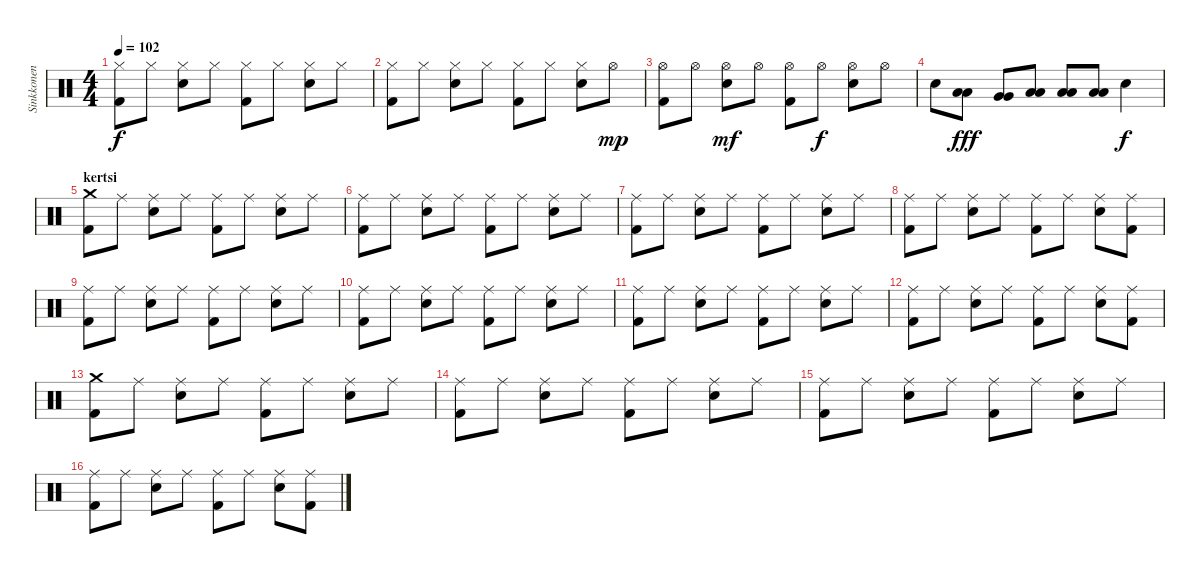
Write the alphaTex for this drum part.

\track ("Sinkkonen" "Sinkkonen") {instrument percussion}
\staff {score}
\articulation defaults
\ts (4 4)
\tempo 102
\clef neutral
\ks c
("Kick (hit) 2" "Hi-Hat (closed)").8{dy f} "Hi-Hat (closed)".8 ("Hi-Hat (closed)" "Snare (hit) 2").8 "Hi-Hat (closed)".8 ("Kick (hit) 2" "Hi-Hat (closed)").8 "Hi-Hat (closed)".8 ("Hi-Hat (closed)" "Snare (hit) 2").8 "Hi-Hat (closed)".8 |
("Kick (hit) 2" "Hi-Hat (closed)").8 "Hi-Hat (closed)".8 ("Hi-Hat (closed)" "Snare (hit) 2").8 "Hi-Hat (closed)".8 ("Kick (hit) 2" "Hi-Hat (closed)").8 "Hi-Hat (closed)".8 ("Hi-Hat (closed)" "Snare (hit) 2").8 "Hi-Hat (open)".8{dy mp} |
("Kick (hit) 2" "Hi-Hat (open)").8 "Hi-Hat (open)".8 ("Hi-Hat (open)" "Snare (hit) 2").8{dy mf} "Hi-Hat (open)".8 ("Kick (hit) 2" "Hi-Hat (open)").8 "Hi-Hat (open)".8{dy f} ("Hi-Hat (open)" "Snare (hit) 2").8 "Hi-Hat (open)".8 |
"Snare (hit) 2".8 ("Low Tom (hit)" "Low Tom (hit)").8{dy fff} ("Very Low Tom (hit)" "Very Low Tom (hit)").8 ("Low Floor Tom (hit)" "Low Floor Tom (hit)").8 ("Low Floor Tom (hit)" "Low Floor Tom (hit)").8 ("Low Floor Tom (hit)" "Low Floor Tom (hit)").8 "Snare (hit) 2".4{dy f} |
\section ("" "kertsi")
("Kick (hit) 2" "Crash medium (hit)").8 "Ride (middle)".8 ("Ride (middle)" "Snare (hit) 2").8 "Ride (middle)".8 ("Kick (hit) 2" "Ride (middle)").8 "Ride (middle)".8 ("Ride (middle)" "Snare (hit) 2").8 "Ride (middle)".8 |
("Kick (hit) 2" "Ride (middle)").8 "Ride (middle)".8 ("Ride (middle)" "Snare (hit) 2").8 "Ride (middle)".8 ("Kick (hit) 2" "Ride (middle)").8 "Ride (middle)".8 ("Ride (middle)" "Snare (hit) 2").8 "Ride (middle)".8 |
("Kick (hit) 2" "Ride (middle)").8 "Ride (middle)".8 ("Ride (middle)" "Snare (hit) 2").8 "Ride (middle)".8 ("Kick (hit) 2" "Ride (middle)").8 "Ride (middle)".8 ("Ride (middle)" "Snare (hit) 2").8 "Ride (middle)".8 |
("Kick (hit) 2" "Ride (middle)").8 "Ride (middle)".8 ("Ride (middle)" "Snare (hit) 2").8 "Ride (middle)".8 ("Kick (hit) 2" "Ride (middle)").8 "Ride (middle)".8 ("Ride (middle)" "Snare (hit) 2").8 ("Kick (hit) 2" "Ride (middle)").8 |
("Kick (hit) 2" "Ride (middle)").8 "Ride (middle)".8 ("Ride (middle)" "Snare (hit) 2").8 "Ride (middle)".8 ("Kick (hit) 2" "Ride (middle)").8 "Ride (middle)".8 ("Ride (middle)" "Snare (hit) 2").8 "Ride (middle)".8 |
("Kick (hit) 2" "Ride (middle)").8 "Ride (middle)".8 ("Ride (middle)" "Snare (hit) 2").8 "Ride (middle)".8 ("Kick (hit) 2" "Ride (middle)").8 "Ride (middle)".8 ("Ride (middle)" "Snare (hit) 2").8 "Ride (middle)".8 |
("Kick (hit) 2" "Ride (middle)").8 "Ride (middle)".8 ("Ride (middle)" "Snare (hit) 2").8 "Ride (middle)".8 ("Kick (hit) 2" "Ride (middle)").8 "Ride (middle)".8 ("Ride (middle)" "Snare (hit) 2").8 "Ride (middle)".8 |
("Kick (hit) 2" "Ride (middle)").8 "Ride (middle)".8 ("Ride (middle)" "Snare (hit) 2").8 "Ride (middle)".8 ("Kick (hit) 2" "Ride (middle)").8 "Ride (middle)".8 ("Ride (middle)" "Snare (hit) 2").8 ("Kick (hit) 2" "Ride (middle)").8 |
("Kick (hit) 2" "Crash medium (hit)").8 "Ride (middle)".8 ("Ride (middle)" "Snare (hit) 2").8 "Ride (middle)".8 ("Kick (hit) 2" "Ride (middle)").8 "Ride (middle)".8 ("Ride (middle)" "Snare (hit) 2").8 "Ride (middle)".8 |
("Kick (hit) 2" "Ride (middle)").8 "Ride (middle)".8 ("Ride (middle)" "Snare (hit) 2").8 "Ride (middle)".8 ("Kick (hit) 2" "Ride (middle)").8 "Ride (middle)".8 ("Ride (middle)" "Snare (hit) 2").8 "Ride (middle)".8 |
("Kick (hit) 2" "Ride (middle)").8 "Ride (middle)".8 ("Ride (middle)" "Snare (hit) 2").8 "Ride (middle)".8 ("Kick (hit) 2" "Ride (middle)").8 "Ride (middle)".8 ("Ride (middle)" "Snare (hit) 2").8 "Ride (middle)".8 |
("Kick (hit) 2" "Ride (middle)").8 "Ride (middle)".8 ("Ride (middle)" "Snare (hit) 2").8 "Ride (middle)".8 ("Kick (hit) 2" "Ride (middle)").8 "Ride (middle)".8 ("Ride (middle)" "Snare (hit) 2").8 ("Kick (hit) 2" "Ride (middle)").8
